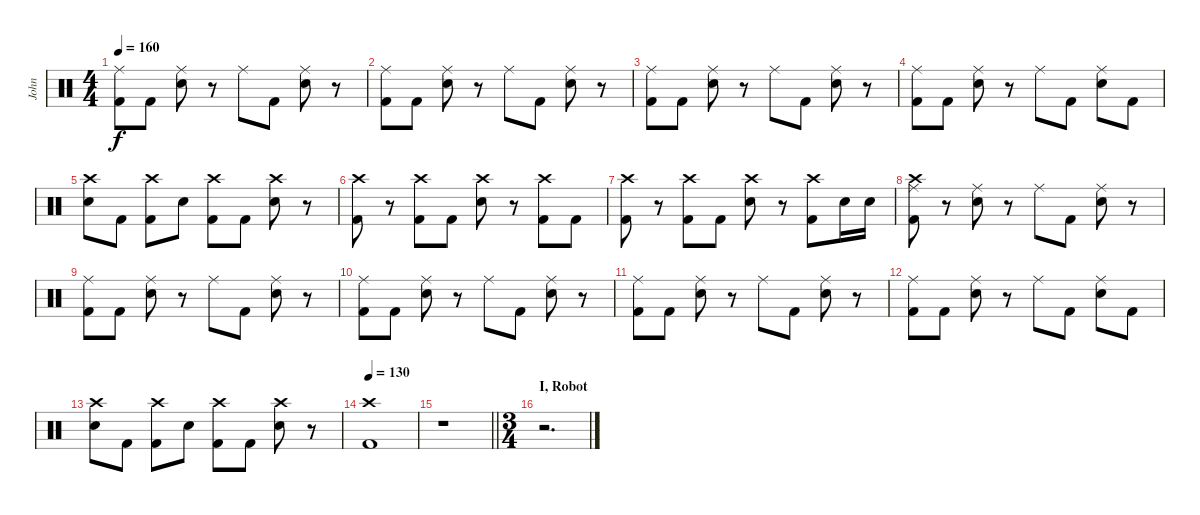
\track ("John" "John") {instrument percussion}
\staff {score}
\articulation defaults
\ts (4 4)
\tempo 160
\clef neutral
\ks c
("Ride (middle)" "Kick (hit) 2").8{dy f} "Kick (hit) 2".8 ("Ride (middle)" "Snare (hit) 2").8 r.8 "Ride (middle)".8 "Kick (hit) 2".8 ("Ride (middle)" "Snare (hit) 2").8 r.8 |
("Ride (middle)" "Kick (hit) 2").8 "Kick (hit) 2".8 ("Ride (middle)" "Snare (hit) 2").8 r.8 "Ride (middle)".8 "Kick (hit) 2".8 ("Ride (middle)" "Snare (hit) 2").8 r.8 |
("Ride (middle)" "Kick (hit) 2").8 "Kick (hit) 2".8 ("Ride (middle)" "Snare (hit) 2").8 r.8 "Ride (middle)".8 "Kick (hit) 2".8 ("Ride (middle)" "Snare (hit) 2").8 r.8 |
("Ride (middle)" "Kick (hit) 2").8 "Kick (hit) 2".8 ("Ride (middle)" "Snare (hit) 2").8 r.8 "Ride (middle)".8 "Kick (hit) 2".8 ("Ride (middle)" "Snare (hit) 2").8 "Kick (hit) 2".8 |
("Crash high (hit)" "Snare (hit) 2").8 "Kick (hit) 2".8 ("Crash high (hit)" "Kick (hit) 2").8 "Snare (hit) 2".8 ("Crash high (hit)" "Kick (hit) 2").8 "Kick (hit) 2".8 ("Crash high (hit)" "Snare (hit) 2").8 r.8 |
("Crash high (hit)" "Kick (hit) 2").8 r.8 ("Crash high (hit)" "Kick (hit) 2").8 "Kick (hit) 2".8 ("Crash high (hit)" "Snare (hit) 2").8 r.8 ("Crash high (hit)" "Kick (hit) 2").8 "Kick (hit) 2".8 |
("Crash high (hit)" "Kick (hit) 2").8 r.8 ("Crash high (hit)" "Kick (hit) 2").8 "Kick (hit) 2".8 ("Crash high (hit)" "Snare (hit) 2").8 r.8 ("Crash high (hit)" "Kick (hit) 2").8 "Snare (hit) 2".16 "Snare (hit) 2".16 |
("Ride (middle)" "Crash high (hit)" "Kick (hit) 2").8 r.8 ("Ride (middle)" "Snare (hit) 2").8 r.8 "Ride (middle)".8 "Kick (hit) 2".8 ("Ride (middle)" "Snare (hit) 2").8 r.8 |
("Ride (middle)" "Kick (hit) 2").8 "Kick (hit) 2".8 ("Ride (middle)" "Snare (hit) 2").8 r.8 "Ride (middle)".8 "Kick (hit) 2".8 ("Ride (middle)" "Snare (hit) 2").8 r.8 |
("Ride (middle)" "Kick (hit) 2").8 "Kick (hit) 2".8 ("Ride (middle)" "Snare (hit) 2").8 r.8 "Ride (middle)".8 "Kick (hit) 2".8 ("Ride (middle)" "Snare (hit) 2").8 r.8 |
("Ride (middle)" "Kick (hit) 2").8 "Kick (hit) 2".8 ("Ride (middle)" "Snare (hit) 2").8 r.8 "Ride (middle)".8 "Kick (hit) 2".8 ("Ride (middle)" "Snare (hit) 2").8 r.8 |
("Ride (middle)" "Kick (hit) 2").8 "Kick (hit) 2".8 ("Ride (middle)" "Snare (hit) 2").8 r.8 "Ride (middle)".8 "Kick (hit) 2".8 ("Ride (middle)" "Snare (hit) 2").8 "Kick (hit) 2".8 |
("Crash high (hit)" "Snare (hit) 2").8 "Kick (hit) 2".8 ("Crash high (hit)" "Kick (hit) 2").8 "Snare (hit) 2".8 ("Crash high (hit)" "Kick (hit) 2").8 "Kick (hit) 2".8 ("Crash high (hit)" "Snare (hit) 2").8 r.8 |
\tempo 130
("Crash high (hit)" "Kick (hit) 2").1 |
\barLineRight lightlight
r.1 |
\ts (3 4)
\section ("" "I, Robot")
r.2{d}
